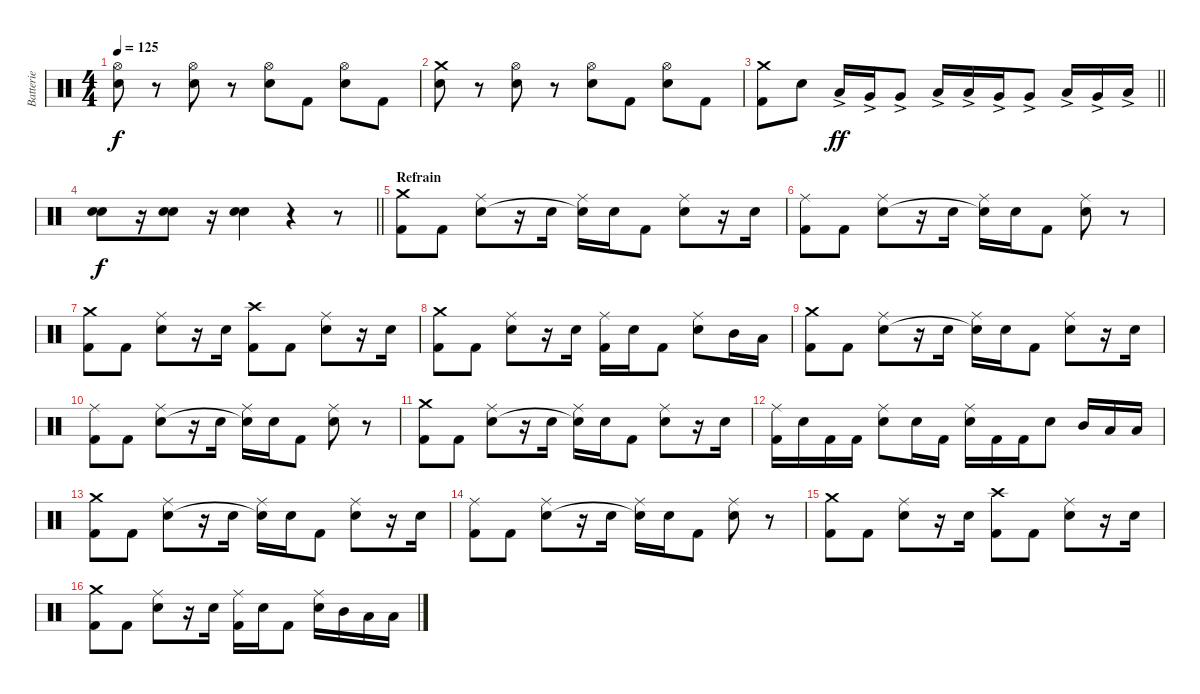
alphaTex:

\track ("Batterie" "Batterie") {instrument percussion}
\staff {score}
\articulation defaults
\ts (4 4)
\tempo 125
\clef neutral
\ks c
("Hi-Hat (open)" "Electric Snare (hit)").8{dy f} r.8 ("Hi-Hat (open)" "Electric Snare (hit)").8 r.8 ("Hi-Hat (open)" "Electric Snare (hit)").8 "Kick (hit) 2".8 ("Hi-Hat (open)" "Electric Snare (hit)").8 "Kick (hit) 2".8 |
("Crash medium (hit)" "Electric Snare (hit)").8 r.8 ("Hi-Hat (open)" "Electric Snare (hit)").8 r.8 ("Hi-Hat (open)" "Electric Snare (hit)").8 "Kick (hit) 2".8 ("Hi-Hat (open)" "Electric Snare (hit)").8 "Kick (hit) 2".8 |
\barLineRight lightlight
("Crash medium (hit)" "Kick (hit) 2").8 "Electric Snare (hit)".8 "Low Tom (hit)"{ac}.16{dy ff} "Very Low Tom (hit)"{ac}.16 "Very Low Tom (hit)"{ac}.8 "Low Tom (hit)"{ac}.16 "Low Tom (hit)"{ac}.16 "Very Low Tom (hit)"{ac}.16 "Very Low Tom (hit)"{ac}.8 "Low Tom (hit)"{ac}.16 "Very Low Tom (hit)"{ac}.16 "Low Floor Tom (hit)"{ac}.16 |
\barLineRight lightlight
("Electric Snare (hit)" "Electric Snare (hit)").8{bu 120 dy f} r.16 ("Electric Snare (hit)" "Electric Snare (hit)").8{bu 120} r.16 ("Electric Snare (hit)" "Electric Snare (hit)").4{bu 120} r.4 r.8 |
\section ("" "Refrain")
("Crash medium (hit)" "Kick (hit) 2").8 "Kick (hit) 2".8 ("Ride (middle)" "Electric Snare (hit)").8 r.16 "Electric Snare (hit)".16 ("Ride (middle)" "Electric Snare (hit)"{t}).16 "Electric Snare (hit)".16 "Kick (hit) 2".8 ("Ride (middle)" "Electric Snare (hit)").8 r.16 "Electric Snare (hit)".16 |
("Ride (middle)" "Kick (hit) 2").8 "Kick (hit) 2".8 ("Ride (middle)" "Electric Snare (hit)").8 r.16 "Electric Snare (hit)".16 ("Ride (middle)" "Electric Snare (hit)"{t}).16 "Electric Snare (hit)".16 "Kick (hit) 2".8 ("Ride (middle)" "Electric Snare (hit)").8 r.8 |
("Crash medium (hit)" "Kick (hit) 2").8 "Kick (hit) 2".8 ("Ride (middle)" "Electric Snare (hit)").8 r.16 "Electric Snare (hit)".16 ("Crash high (hit)" "Kick (hit) 2").8 "Kick (hit) 2".8 ("Ride (middle)" "Electric Snare (hit)").8 r.16 "Electric Snare (hit)".16 |
("Crash medium (hit)" "Kick (hit) 2").8 "Kick (hit) 2".8 ("Ride (middle)" "Electric Snare (hit)").8 r.16 "Electric Snare (hit)".16 ("Ride (middle)" "Kick (hit) 2").16 "Electric Snare (hit)".16 "Kick (hit) 2".8 ("Ride (middle)" "Electric Snare (hit)").8 "Mid Tom (hit)".16 "Low Tom (hit)".16 |
("Crash medium (hit)" "Kick (hit) 2").8 "Kick (hit) 2".8 ("Ride (middle)" "Electric Snare (hit)").8 r.16 "Electric Snare (hit)".16 ("Ride (middle)" "Electric Snare (hit)"{t}).16 "Electric Snare (hit)".16 "Kick (hit) 2".8 ("Ride (middle)" "Electric Snare (hit)").8 r.16 "Electric Snare (hit)".16 |
("Ride (middle)" "Kick (hit) 2").8 "Kick (hit) 2".8 ("Ride (middle)" "Electric Snare (hit)").8 r.16 "Electric Snare (hit)".16 ("Ride (middle)" "Electric Snare (hit)"{t}).16 "Electric Snare (hit)".16 "Kick (hit) 2".8 ("Ride (middle)" "Electric Snare (hit)").8 r.8 |
("Crash medium (hit)" "Kick (hit) 2").8 "Kick (hit) 2".8 ("Ride (middle)" "Electric Snare (hit)").8 r.16 "Electric Snare (hit)".16 ("Ride (middle)" "Electric Snare (hit)"{t}).16 "Electric Snare (hit)".16 "Kick (hit) 2".8 ("Ride (middle)" "Electric Snare (hit)").8 r.16 "Electric Snare (hit)".16 |
("Ride (middle)" "Kick (hit) 2").16 "Electric Snare (hit)".16 "Kick (hit) 2".16 "Kick (hit) 2".16 ("Ride (middle)" "Electric Snare (hit)").8 "Electric Snare (hit)".16 "Kick (hit) 2".16 ("Ride (middle)" "Electric Snare (hit)").16 "Kick (hit) 2".16 "Kick (hit) 2".16 "Electric Snare (hit)".8 "Mid Tom (hit)".16 "Low Tom (hit)".16 "Low Floor Tom (hit)".16 |
("Crash medium (hit)" "Kick (hit) 2").8 "Kick (hit) 2".8 ("Ride (middle)" "Electric Snare (hit)").8 r.16 "Electric Snare (hit)".16 ("Ride (middle)" "Electric Snare (hit)"{t}).16 "Electric Snare (hit)".16 "Kick (hit) 2".8 ("Ride (middle)" "Electric Snare (hit)").8 r.16 "Electric Snare (hit)".16 |
("Ride (middle)" "Kick (hit) 2").8 "Kick (hit) 2".8 ("Ride (middle)" "Electric Snare (hit)").8 r.16 "Electric Snare (hit)".16 ("Ride (middle)" "Electric Snare (hit)"{t}).16 "Electric Snare (hit)".16 "Kick (hit) 2".8 ("Ride (middle)" "Electric Snare (hit)").8 r.8 |
("Crash medium (hit)" "Kick (hit) 2").8 "Kick (hit) 2".8 ("Ride (middle)" "Electric Snare (hit)").8 r.16 "Electric Snare (hit)".16 ("Crash high (hit)" "Kick (hit) 2").8 "Kick (hit) 2".8 ("Ride (middle)" "Electric Snare (hit)").8 r.16 "Electric Snare (hit)".16 |
("Crash medium (hit)" "Kick (hit) 2").8 "Kick (hit) 2".8 ("Ride (middle)" "Electric Snare (hit)").8 r.16 "Electric Snare (hit)".16 ("Ride (middle)" "Kick (hit) 2").16 "Electric Snare (hit)".16 "Kick (hit) 2".8 ("Ride (middle)" "Electric Snare (hit)").16 "Mid Tom (hit)".16 "Low Tom (hit)".16 "Low Floor Tom (hit)".16
